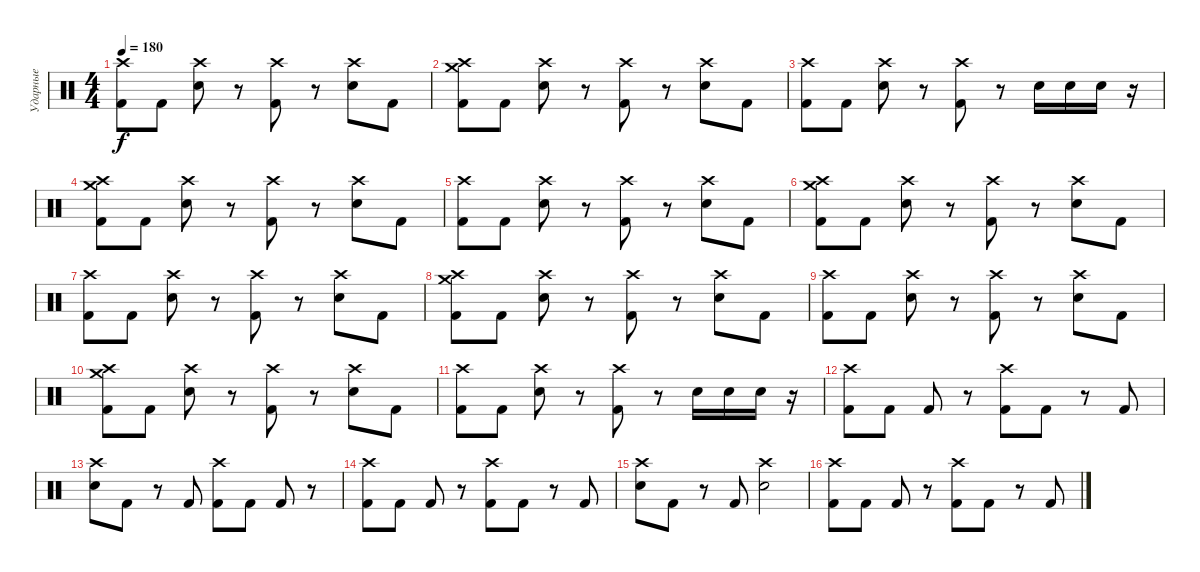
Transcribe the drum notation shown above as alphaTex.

\track ("Ударные" "Ударные") {instrument percussion}
\staff {score}
\articulation defaults
\ts (4 4)
\tempo 180
\clef neutral
\ks c
("Crash high (hit)" "Kick (hit) 2").8{dy f} "Kick (hit) 2".8 ("Crash high (hit)" "Snare (hit) 2").8 r.8 ("Crash high (hit)" "Kick (hit) 2").8 r.8 ("Crash high (hit)" "Snare (hit) 2").8 "Kick (hit) 2".8 |
("Crash medium (hit)" "Crash high (hit)" "Kick (hit) 2").8 "Kick (hit) 2".8 ("Crash high (hit)" "Snare (hit) 2").8 r.8 ("Crash high (hit)" "Kick (hit) 2").8 r.8 ("Crash high (hit)" "Snare (hit) 2").8 "Kick (hit) 2".8 |
("Crash high (hit)" "Kick (hit) 2").8 "Kick (hit) 2".8 ("Crash high (hit)" "Snare (hit) 2").8 r.8 ("Crash high (hit)" "Kick (hit) 2").8 r.8 "Snare (hit) 2".16 "Snare (hit) 2".16 "Snare (hit) 2".16 r.16 |
("Crash medium (hit)" "Crash high (hit)" "Kick (hit) 2").8 "Kick (hit) 2".8 ("Crash high (hit)" "Snare (hit) 2").8 r.8 ("Crash high (hit)" "Kick (hit) 2").8 r.8 ("Crash high (hit)" "Snare (hit) 2").8 "Kick (hit) 2".8 |
("Crash high (hit)" "Kick (hit) 2").8 "Kick (hit) 2".8 ("Crash high (hit)" "Snare (hit) 2").8 r.8 ("Crash high (hit)" "Kick (hit) 2").8 r.8 ("Crash high (hit)" "Snare (hit) 2").8 "Kick (hit) 2".8 |
("Crash medium (hit)" "Crash high (hit)" "Kick (hit) 2").8 "Kick (hit) 2".8 ("Crash high (hit)" "Snare (hit) 2").8 r.8 ("Crash high (hit)" "Kick (hit) 2").8 r.8 ("Crash high (hit)" "Snare (hit) 2").8 "Kick (hit) 2".8 |
("Crash high (hit)" "Kick (hit) 2").8 "Kick (hit) 2".8 ("Crash high (hit)" "Snare (hit) 2").8 r.8 ("Crash high (hit)" "Kick (hit) 2").8 r.8 ("Crash high (hit)" "Snare (hit) 2").8 "Kick (hit) 2".8 |
("Crash medium (hit)" "Crash high (hit)" "Kick (hit) 2").8 "Kick (hit) 2".8 ("Crash high (hit)" "Snare (hit) 2").8 r.8 ("Crash high (hit)" "Kick (hit) 2").8 r.8 ("Crash high (hit)" "Snare (hit) 2").8 "Kick (hit) 2".8 |
("Crash high (hit)" "Kick (hit) 2").8 "Kick (hit) 2".8 ("Crash high (hit)" "Snare (hit) 2").8 r.8 ("Crash high (hit)" "Kick (hit) 2").8 r.8 ("Crash high (hit)" "Snare (hit) 2").8 "Kick (hit) 2".8 |
("Crash medium (hit)" "Crash high (hit)" "Kick (hit) 2").8 "Kick (hit) 2".8 ("Crash high (hit)" "Snare (hit) 2").8 r.8 ("Crash high (hit)" "Kick (hit) 2").8 r.8 ("Crash high (hit)" "Snare (hit) 2").8 "Kick (hit) 2".8 |
("Crash high (hit)" "Kick (hit) 2").8 "Kick (hit) 2".8 ("Crash high (hit)" "Snare (hit) 2").8 r.8 ("Crash high (hit)" "Kick (hit) 2").8 r.8 "Snare (hit) 2".16 "Snare (hit) 2".16 "Snare (hit) 2".16 r.16 |
("Crash high (hit)" "Kick (hit) 2").8 "Kick (hit) 2".8 "Kick (hit) 2".8 r.8 ("Crash high (hit)" "Kick (hit) 2").8 "Kick (hit) 2".8 r.8 "Kick (hit) 2".8 |
("Crash high (hit)" "Snare (hit) 2").8 "Kick (hit) 2".8 r.8 "Kick (hit) 2".8 ("Crash high (hit)" "Kick (hit) 2").8 "Kick (hit) 2".8 "Kick (hit) 2".8 r.8 |
("Crash high (hit)" "Kick (hit) 2").8 "Kick (hit) 2".8 "Kick (hit) 2".8 r.8 ("Crash high (hit)" "Kick (hit) 2").8 "Kick (hit) 2".8 r.8 "Kick (hit) 2".8 |
("Crash high (hit)" "Snare (hit) 2").8 "Kick (hit) 2".8 r.8 "Kick (hit) 2".8 ("Crash high (hit)" "Snare (hit) 2").2 |
("Crash high (hit)" "Kick (hit) 2").8 "Kick (hit) 2".8 "Kick (hit) 2".8 r.8 ("Crash high (hit)" "Kick (hit) 2").8 "Kick (hit) 2".8 r.8 "Kick (hit) 2".8
